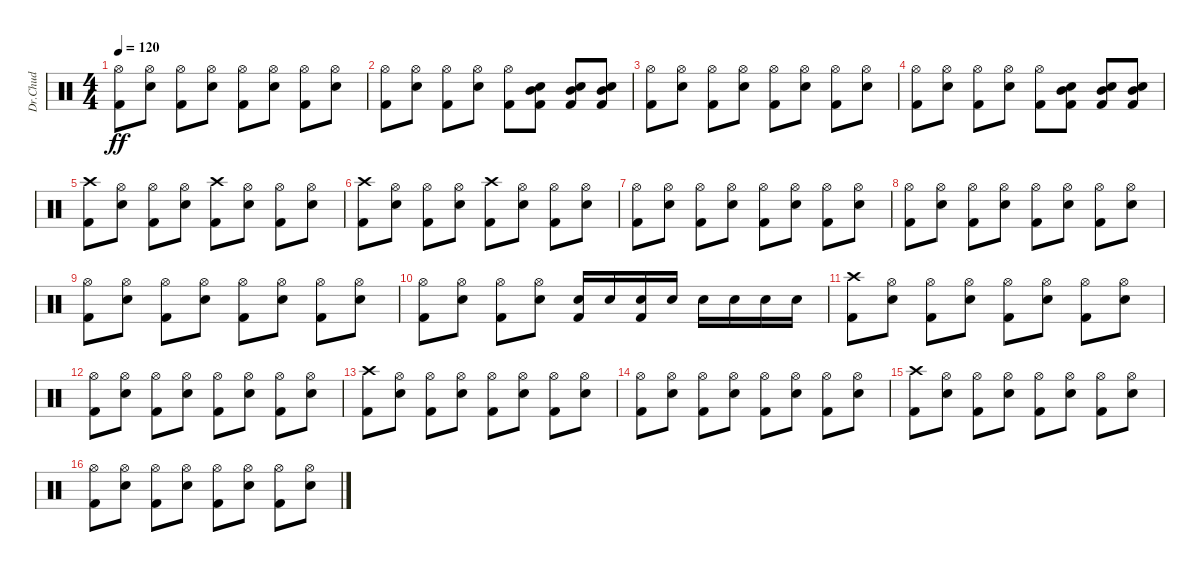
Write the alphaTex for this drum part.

\track ("Dr.Chud" "Dr.Chud") {instrument percussion}
\staff {score}
\articulation defaults
\ts (4 4)
\tempo 120
\clef neutral
\ks c
("Hi-Hat (open)" "Kick (hit) 2").8{dy ff} ("Hi-Hat (open)" "Electric Snare (hit)").8 ("Hi-Hat (open)" "Kick (hit) 2").8 ("Hi-Hat (open)" "Electric Snare (hit)").8 ("Hi-Hat (open)" "Kick (hit) 2").8 ("Hi-Hat (open)" "Electric Snare (hit)").8 ("Hi-Hat (open)" "Kick (hit) 2").8 ("Hi-Hat (open)" "Electric Snare (hit)").8 |
("Hi-Hat (open)" "Kick (hit) 2").8 ("Hi-Hat (open)" "Electric Snare (hit)").8 ("Hi-Hat (open)" "Kick (hit) 2").8 ("Hi-Hat (open)" "Electric Snare (hit)").8 ("Hi-Hat (open)" "Kick (hit) 2").8 ("Mid Tom (hit)" "Electric Snare (hit)" "Kick (hit) 2").8 ("Mid Tom (hit)" "Electric Snare (hit)" "Kick (hit) 2").8 ("Mid Tom (hit)" "Electric Snare (hit)" "Kick (hit) 2").8 |
("Hi-Hat (open)" "Kick (hit) 2").8 ("Hi-Hat (open)" "Electric Snare (hit)").8 ("Hi-Hat (open)" "Kick (hit) 2").8 ("Hi-Hat (open)" "Electric Snare (hit)").8 ("Hi-Hat (open)" "Kick (hit) 2").8 ("Hi-Hat (open)" "Electric Snare (hit)").8 ("Hi-Hat (open)" "Kick (hit) 2").8 ("Hi-Hat (open)" "Electric Snare (hit)").8 |
("Hi-Hat (open)" "Kick (hit) 2").8 ("Hi-Hat (open)" "Electric Snare (hit)").8 ("Hi-Hat (open)" "Kick (hit) 2").8 ("Hi-Hat (open)" "Electric Snare (hit)").8 ("Hi-Hat (open)" "Kick (hit) 2").8 ("Mid Tom (hit)" "Electric Snare (hit)" "Kick (hit) 2").8 ("Mid Tom (hit)" "Electric Snare (hit)" "Kick (hit) 2").8 ("Mid Tom (hit)" "Electric Snare (hit)" "Kick (hit) 2").8 |
("Crash high (hit)" "Kick (hit) 2").8 ("Hi-Hat (open)" "Electric Snare (hit)").8 ("Hi-Hat (open)" "Kick (hit) 2").8 ("Hi-Hat (open)" "Electric Snare (hit)").8 ("Crash high (hit)" "Kick (hit) 2").8 ("Hi-Hat (open)" "Electric Snare (hit)").8 ("Hi-Hat (open)" "Kick (hit) 2").8 ("Hi-Hat (open)" "Electric Snare (hit)").8 |
("Crash high (hit)" "Kick (hit) 2").8 ("Hi-Hat (open)" "Electric Snare (hit)").8 ("Hi-Hat (open)" "Kick (hit) 2").8 ("Hi-Hat (open)" "Electric Snare (hit)").8 ("Crash high (hit)" "Kick (hit) 2").8 ("Hi-Hat (open)" "Electric Snare (hit)").8 ("Hi-Hat (open)" "Kick (hit) 2").8 ("Hi-Hat (open)" "Electric Snare (hit)").8 |
("Hi-Hat (open)" "Kick (hit) 2").8 ("Hi-Hat (open)" "Electric Snare (hit)").8 ("Hi-Hat (open)" "Kick (hit) 2").8 ("Hi-Hat (open)" "Electric Snare (hit)").8 ("Hi-Hat (open)" "Kick (hit) 2").8 ("Hi-Hat (open)" "Electric Snare (hit)").8 ("Hi-Hat (open)" "Kick (hit) 2").8 ("Hi-Hat (open)" "Electric Snare (hit)").8 |
("Hi-Hat (open)" "Kick (hit) 2").8 ("Hi-Hat (open)" "Electric Snare (hit)").8 ("Hi-Hat (open)" "Kick (hit) 2").8 ("Hi-Hat (open)" "Electric Snare (hit)").8 ("Hi-Hat (open)" "Kick (hit) 2").8 ("Hi-Hat (open)" "Electric Snare (hit)").8 ("Hi-Hat (open)" "Kick (hit) 2").8 ("Hi-Hat (open)" "Electric Snare (hit)").8 |
("Hi-Hat (open)" "Kick (hit) 2").8 ("Hi-Hat (open)" "Electric Snare (hit)").8 ("Hi-Hat (open)" "Kick (hit) 2").8 ("Hi-Hat (open)" "Electric Snare (hit)").8 ("Hi-Hat (open)" "Kick (hit) 2").8 ("Hi-Hat (open)" "Electric Snare (hit)").8 ("Hi-Hat (open)" "Kick (hit) 2").8 ("Hi-Hat (open)" "Electric Snare (hit)").8 |
("Hi-Hat (open)" "Kick (hit) 2").8 ("Hi-Hat (open)" "Electric Snare (hit)").8 ("Hi-Hat (open)" "Kick (hit) 2").8 ("Hi-Hat (open)" "Electric Snare (hit)").8 ("Electric Snare (hit)" "Kick (hit) 2").16 "Electric Snare (hit)".16 ("Electric Snare (hit)" "Kick (hit) 2").16 "Electric Snare (hit)".16 "Electric Snare (hit)".16 "Electric Snare (hit)".16 "Electric Snare (hit)".16 "Electric Snare (hit)".16 |
("Crash high (hit)" "Kick (hit) 2").8 ("Hi-Hat (open)" "Electric Snare (hit)").8 ("Hi-Hat (open)" "Kick (hit) 2").8 ("Hi-Hat (open)" "Electric Snare (hit)").8 ("Hi-Hat (open)" "Kick (hit) 2").8 ("Hi-Hat (open)" "Electric Snare (hit)").8 ("Hi-Hat (open)" "Kick (hit) 2").8 ("Hi-Hat (open)" "Electric Snare (hit)").8 |
("Hi-Hat (open)" "Kick (hit) 2").8 ("Hi-Hat (open)" "Electric Snare (hit)").8 ("Hi-Hat (open)" "Kick (hit) 2").8 ("Hi-Hat (open)" "Electric Snare (hit)").8 ("Hi-Hat (open)" "Kick (hit) 2").8 ("Hi-Hat (open)" "Electric Snare (hit)").8 ("Hi-Hat (open)" "Kick (hit) 2").8 ("Hi-Hat (open)" "Electric Snare (hit)").8 |
("Crash high (hit)" "Kick (hit) 2").8 ("Hi-Hat (open)" "Electric Snare (hit)").8 ("Hi-Hat (open)" "Kick (hit) 2").8 ("Hi-Hat (open)" "Electric Snare (hit)").8 ("Hi-Hat (open)" "Kick (hit) 2").8 ("Hi-Hat (open)" "Electric Snare (hit)").8 ("Hi-Hat (open)" "Kick (hit) 2").8 ("Hi-Hat (open)" "Electric Snare (hit)").8 |
("Hi-Hat (open)" "Kick (hit) 2").8 ("Hi-Hat (open)" "Electric Snare (hit)").8 ("Hi-Hat (open)" "Kick (hit) 2").8 ("Hi-Hat (open)" "Electric Snare (hit)").8 ("Hi-Hat (open)" "Kick (hit) 2").8 ("Hi-Hat (open)" "Electric Snare (hit)").8 ("Hi-Hat (open)" "Kick (hit) 2").8 ("Hi-Hat (open)" "Electric Snare (hit)").8 |
("Crash high (hit)" "Kick (hit) 2").8 ("Hi-Hat (open)" "Electric Snare (hit)").8 ("Hi-Hat (open)" "Kick (hit) 2").8 ("Hi-Hat (open)" "Electric Snare (hit)").8 ("Hi-Hat (open)" "Kick (hit) 2").8 ("Hi-Hat (open)" "Electric Snare (hit)").8 ("Hi-Hat (open)" "Kick (hit) 2").8 ("Hi-Hat (open)" "Electric Snare (hit)").8 |
("Hi-Hat (open)" "Kick (hit) 2").8 ("Hi-Hat (open)" "Electric Snare (hit)").8 ("Hi-Hat (open)" "Kick (hit) 2").8 ("Hi-Hat (open)" "Electric Snare (hit)").8 ("Hi-Hat (open)" "Kick (hit) 2").8 ("Hi-Hat (open)" "Electric Snare (hit)").8 ("Hi-Hat (open)" "Kick (hit) 2").8 ("Hi-Hat (open)" "Electric Snare (hit)").8
